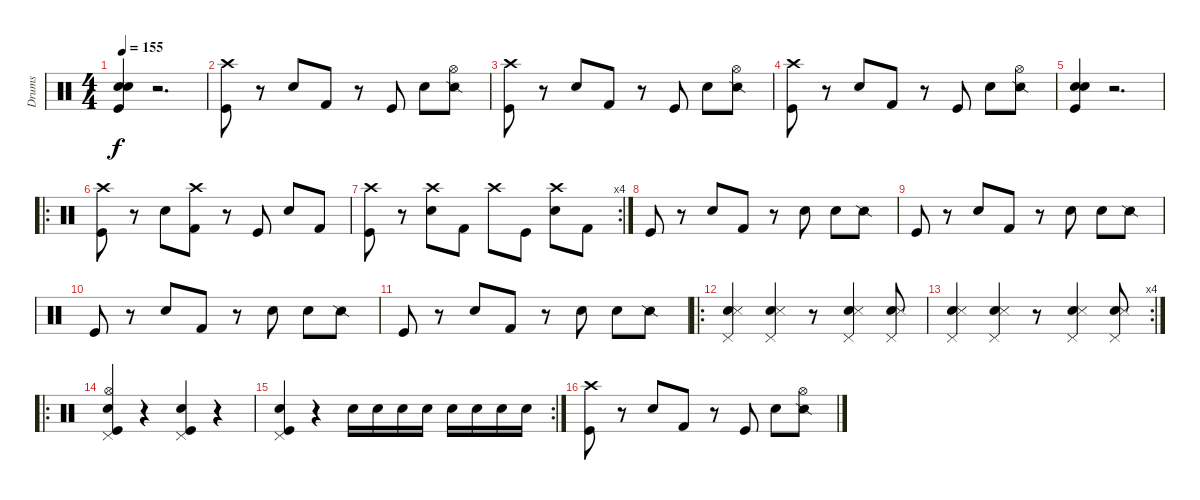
\track ("Drums" "Drums") {instrument percussion}
\staff {score}
\articulation defaults
\ts (4 4)
\tempo 155
\clef neutral
\ks c
("Kick (hit)" "Snare (hit) 2" "Electric Snare (hit)").4{dy f} r.2{d} |
("Kick (hit)" "Crash high (hit)").8 r.8 "Snare (hit) 2".8 "Kick (hit) 2".8 r.8 "Kick (hit)".8 "Snare (hit) 2".8 ("Snare (side stick) 2" "Hi-Hat (open)").8 |
("Kick (hit)" "Crash high (hit)").8 r.8 "Snare (hit) 2".8 "Kick (hit) 2".8 r.8 "Kick (hit)".8 "Snare (hit) 2".8 ("Snare (side stick) 2" "Hi-Hat (open)").8 |
("Kick (hit)" "Crash high (hit)").8 r.8 "Snare (hit) 2".8 "Kick (hit) 2".8 r.8 "Kick (hit)".8 "Snare (hit) 2".8 ("Snare (side stick) 2" "Hi-Hat (open)").8 |
("Kick (hit)" "Snare (hit) 2" "Electric Snare (hit)").4 r.2{d} |
\ro
("Kick (hit)" "Crash high (hit)").8 r.8 "Snare (hit) 2".8 ("Kick (hit) 2" "Crash high (hit)").8 r.8 "Kick (hit)".8 "Snare (hit) 2".8 "Kick (hit) 2".8 |
\rc 4
("Kick (hit)" "Crash high (hit)").8 r.8 ("Snare (hit) 2" "Crash high (hit)").8 "Kick (hit) 2".8 "Crash high (hit)".8 "Kick (hit)".8 ("Snare (hit) 2" "Crash high (hit)").8 "Kick (hit) 2".8 |
"Kick (hit)".8 r.8 "Snare (hit) 2".8 "Kick (hit) 2".8 r.8 "Snare (hit) 2".8 "Snare (hit) 2".8 "Snare (side stick) 2".8 |
"Kick (hit)".8 r.8 "Snare (hit) 2".8 "Kick (hit) 2".8 r.8 "Snare (hit) 2".8 "Snare (hit) 2".8 "Snare (side stick) 2".8 |
"Kick (hit)".8 r.8 "Snare (hit) 2".8 "Kick (hit) 2".8 r.8 "Snare (hit) 2".8 "Snare (hit) 2".8 "Snare (side stick) 2".8 |
"Kick (hit)".8 r.8 "Snare (hit) 2".8 "Kick (hit) 2".8 r.8 "Snare (hit) 2".8 "Snare (hit) 2".8 "Snare (side stick) 2".8 |
\ro
("Snare (hit) 2" "Snare (side stick) 3" "Pedal Hi-Hat (hit)").4 ("Snare (hit) 2" "Snare (side stick) 3" "Pedal Hi-Hat (hit)").4 r.8 ("Snare (hit) 2" "Snare (side stick) 3" "Pedal Hi-Hat (hit)").4 ("Snare (hit) 2" "Snare (side stick) 3" "Pedal Hi-Hat (hit)").8 |
\rc 4
("Snare (hit) 2" "Snare (side stick) 3" "Pedal Hi-Hat (hit)").4 ("Snare (hit) 2" "Snare (side stick) 3" "Pedal Hi-Hat (hit)").4 r.8 ("Snare (hit) 2" "Snare (side stick) 3" "Pedal Hi-Hat (hit)").4 ("Snare (hit) 2" "Snare (side stick) 3" "Pedal Hi-Hat (hit)").8 |
\ro
("Snare (hit) 2" "Kick (hit)" "Pedal Hi-Hat (hit)" "Hi-Hat (open)").4 r.4 ("Snare (hit) 2" "Kick (hit)" "Pedal Hi-Hat (hit)").4 r.4 |
\rc 2
("Snare (hit) 2" "Kick (hit)" "Pedal Hi-Hat (hit)").4 r.4 "Snare (hit) 2".16 "Snare (hit) 2".16 "Snare (hit) 2".16 "Snare (hit) 2".16 "Snare (hit) 2".16 "Snare (hit) 2".16 "Snare (hit) 2".16 "Snare (hit) 2".16 |
("Kick (hit)" "Crash high (hit)").8 r.8 "Snare (hit) 2".8 "Kick (hit) 2".8 r.8 "Kick (hit)".8 "Snare (hit) 2".8 ("Snare (side stick) 2" "Hi-Hat (open)").8
